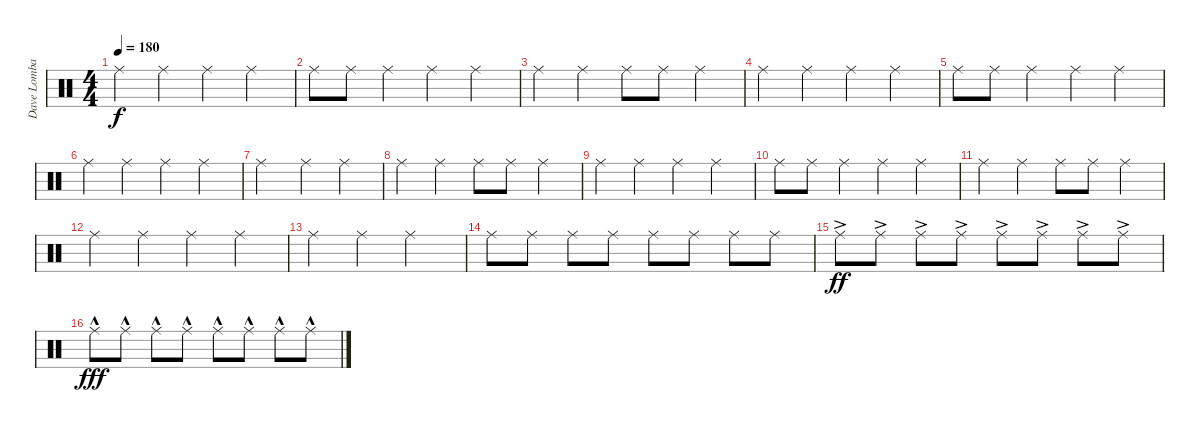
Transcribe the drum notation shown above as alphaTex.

\track ("Dave Lombardo:" "Dave Lomba") {instrument percussion}
\staff {score}
\articulation defaults
\ts (4 4)
\tempo 180
\clef neutral
\ks c "Ride (middle)".4{dy f} "Ride (middle)".4 "Ride (middle)".4 "Ride (middle)".4
|
"Ride (middle)".8 "Ride (middle)".8 "Ride (middle)".4 "Ride (middle)".4 "Ride (middle)".4 |
"Ride (middle)".4 "Ride (middle)".4 "Ride (middle)".8 "Ride (middle)".8 "Ride (middle)".4 |
"Ride (middle)".4 "Ride (middle)".4 "Ride (middle)".4 "Ride (middle)".4 |
"Ride (middle)".8 "Ride (middle)".8 "Ride (middle)".4 "Ride (middle)".4 "Ride (middle)".4 |
"Ride (middle)".4 "Ride (middle)".4 "Ride (middle)".4 "Ride (middle)".4 |
"Ride (middle)".2 "Ride (middle)".4 "Ride (middle)".4 |
"Ride (middle)".4 "Ride (middle)".4 "Ride (middle)".8 "Ride (middle)".8 "Ride (middle)".4 |
"Ride (middle)".4 "Ride (middle)".4 "Ride (middle)".4 "Ride (middle)".4 |
"Ride (middle)".8 "Ride (middle)".8 "Ride (middle)".4 "Ride (middle)".4 "Ride (middle)".4 |
"Ride (middle)".4 "Ride (middle)".4 "Ride (middle)".8 "Ride (middle)".8 "Ride (middle)".4 |
"Ride (middle)".4 "Ride (middle)".4 "Ride (middle)".4 "Ride (middle)".4 |
"Ride (middle)".4 "Ride (middle)".4 "Ride (middle)".2 |
"Ride (middle)".8 "Ride (middle)".8 "Ride (middle)".8 "Ride (middle)".8 "Ride (middle)".8 "Ride (middle)".8 "Ride (middle)".8 "Ride (middle)".8 |
"Ride (middle)"{ac}.8{dy ff} "Ride (middle)"{ac}.8 "Ride (middle)"{ac}.8 "Ride (middle)"{ac}.8 "Ride (middle)"{ac}.8 "Ride (middle)"{ac}.8 "Ride (middle)"{ac}.8 "Ride (middle)"{ac}.8 |
"Ride (middle)"{hac}.8{dy fff} "Ride (middle)"{hac}.8 "Ride (middle)"{hac}.8 "Ride (middle)"{hac}.8 "Ride (middle)"{hac}.8 "Ride (middle)"{hac}.8 "Ride (middle)"{hac}.8 "Ride (middle)"{hac}.8
